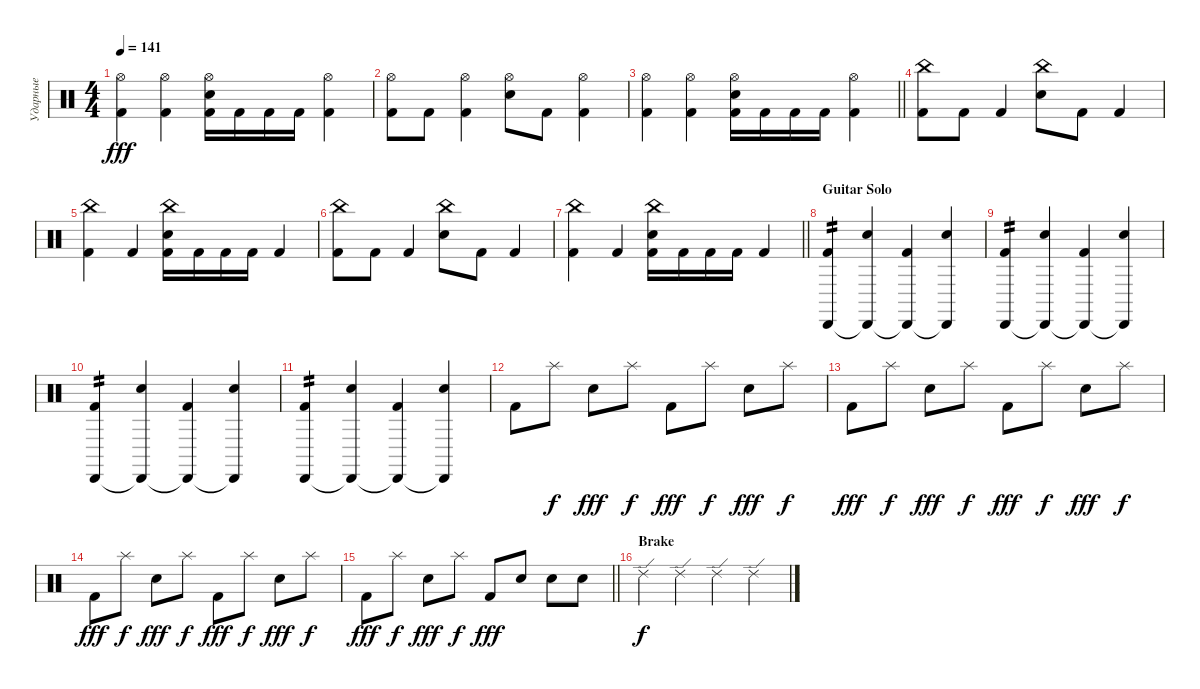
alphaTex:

\track ("Ударные" "Ударные") {instrument percussion}
\staff {score}
\articulation defaults
\ts (4 4)
\tempo 141
\clef neutral
\ks c
("Hi-Hat (open)" "Kick (hit) 2").4{dy fff} ("Hi-Hat (open)" "Kick (hit) 2").4 ("Hi-Hat (open)" "Electric Snare (hit)" "Kick (hit) 2").16 "Kick (hit) 2".16 "Kick (hit) 2".16 "Kick (hit) 2".16 ("Hi-Hat (open)" "Kick (hit) 2").4 |
("Hi-Hat (open)" "Kick (hit) 2").8 "Kick (hit) 2".8 ("Hi-Hat (open)" "Kick (hit) 2").4 ("Hi-Hat (open)" "Electric Snare (hit)").8 "Kick (hit) 2".8 ("Hi-Hat (open)" "Kick (hit) 2").4 |
\barLineRight lightlight
("Hi-Hat (open)" "Kick (hit) 2").4 ("Hi-Hat (open)" "Kick (hit) 2").4 ("Hi-Hat (open)" "Electric Snare (hit)" "Kick (hit) 2").16 "Kick (hit) 2".16 "Kick (hit) 2".16 "Kick (hit) 2".16 ("Hi-Hat (open)" "Kick (hit) 2").4 |
("China (hit)" "Kick (hit) 2").8 "Kick (hit) 2".8 "Kick (hit) 2".4 ("China (hit)" "Electric Snare (hit)").8 "Kick (hit) 2".8 "Kick (hit) 2".4 |
("China (hit)" "Kick (hit) 2").4 "Kick (hit) 2".4 ("China (hit)" "Electric Snare (hit)" "Kick (hit) 2").16 "Kick (hit) 2".16 "Kick (hit) 2".16 "Kick (hit) 2".16 "Kick (hit) 2".4 |
("China (hit)" "Kick (hit) 2").8 "Kick (hit) 2".8 "Kick (hit) 2".4 ("China (hit)" "Electric Snare (hit)").8 "Kick (hit) 2".8 "Kick (hit) 2".4 |
\barLineRight lightlight
("China (hit)" "Kick (hit) 2").4 "Kick (hit) 2".4 ("China (hit)" "Electric Snare (hit)" "Kick (hit) 2").16 "Kick (hit) 2".16 "Kick (hit) 2".16 "Kick (hit) 2".16 "Kick (hit) 2".4 |
\section ("" "Guitar Solo")
("Cabasa (hit)" "Kick (hit) 2").4{tp 2} ("Cabasa (hit)"{t} "Electric Snare (hit)").4 ("Cabasa (hit)"{t} "Kick (hit) 2").4 ("Cabasa (hit)"{t} "Electric Snare (hit)").4 |
("Cabasa (hit)" "Kick (hit) 2").4{tp 2} ("Cabasa (hit)"{t} "Electric Snare (hit)").4 ("Cabasa (hit)"{t} "Kick (hit) 2").4 ("Cabasa (hit)"{t} "Electric Snare (hit)").4 |
("Cabasa (hit)" "Kick (hit) 2").4{tp 2} ("Cabasa (hit)"{t} "Electric Snare (hit)").4 ("Cabasa (hit)"{t} "Kick (hit) 2").4 ("Cabasa (hit)"{t} "Electric Snare (hit)").4 |
("Cabasa (hit)" "Kick (hit) 2").4{tp 2} ("Cabasa (hit)"{t} "Electric Snare (hit)").4 ("Cabasa (hit)"{t} "Kick (hit) 2").4 ("Cabasa (hit)"{t} "Electric Snare (hit)").4 |
"Kick (hit) 2".8 "Splash (hit)".8{dy f} "Electric Snare (hit)".8{dy fff} "Splash (hit)".8{dy f} "Kick (hit) 2".8{dy fff} "Splash (hit)".8{dy f} "Electric Snare (hit)".8{dy fff} "Splash (hit)".8{dy f} |
"Kick (hit) 2".8{dy fff} "Splash (hit)".8{dy f} "Electric Snare (hit)".8{dy fff} "Splash (hit)".8{dy f} "Kick (hit) 2".8{dy fff} "Splash (hit)".8{dy f} "Electric Snare (hit)".8{dy fff} "Splash (hit)".8{dy f} |
"Kick (hit) 2".8{dy fff} "Splash (hit)".8{dy f} "Electric Snare (hit)".8{dy fff} "Splash (hit)".8{dy f} "Kick (hit) 2".8{dy fff} "Splash (hit)".8{dy f} "Electric Snare (hit)".8{dy fff} "Splash (hit)".8{dy f} |
\barLineRight lightlight "Kick (hit) 2".8{dy fff} "Splash (hit)".8{dy f} "Electric Snare (hit)".8{dy fff} "Splash (hit)".8{dy f} "Kick (hit) 2".8{dy fff} "Electric Snare (hit)".8 "Electric Snare (hit)".8 "Electric Snare (hit)".8
|
\section ("" "Brake")
"Ride (edge) 2".4{dy f} "Ride (edge) 2".4 "Ride (edge) 2".4 "Ride (edge) 2".4
